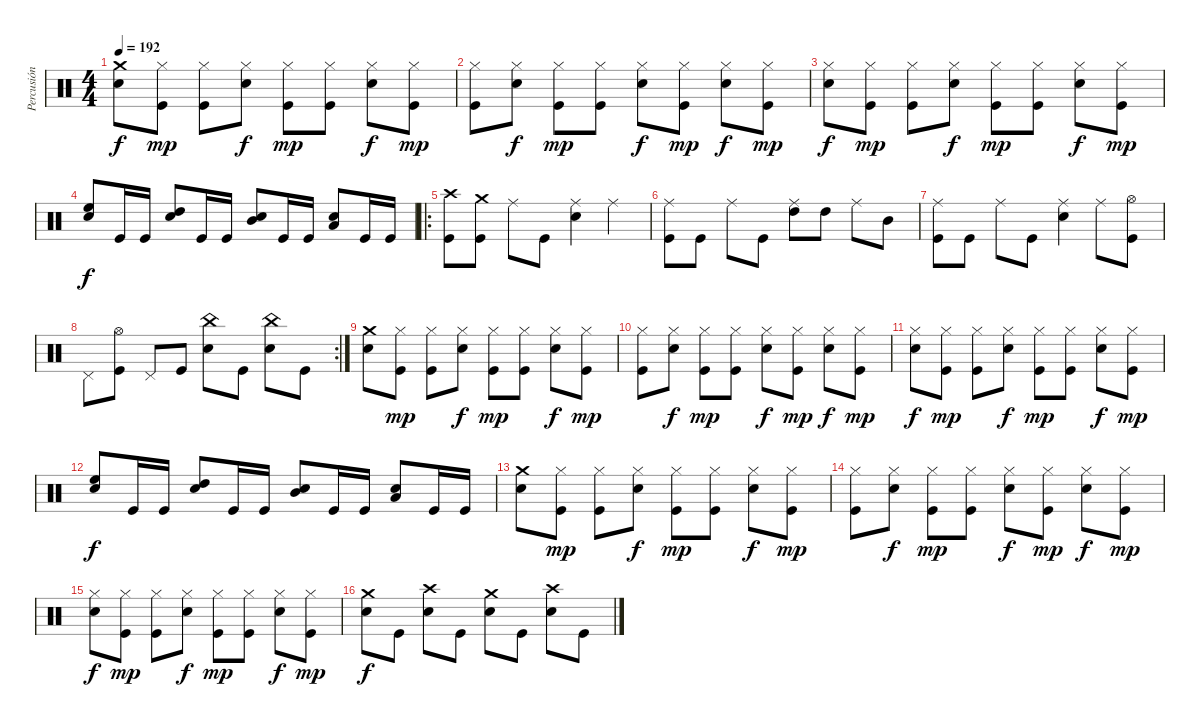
\track ("Percusión" "Percusión") {instrument percussion}
\staff {score}
\articulation defaults
\ts (4 4)
\tempo 192
\clef neutral
\ks c
("Crash medium (hit)" "Electric Snare (hit)").8{dy f} ("Hi-Hat (closed)" "Kick (hit)").8{dy mp} ("Hi-Hat (closed)" "Kick (hit)").8 ("Hi-Hat (closed)" "Electric Snare (hit)").8{dy f} ("Hi-Hat (closed)" "Kick (hit)").8{dy mp} ("Hi-Hat (closed)" "Kick (hit)").8 ("Hi-Hat (closed)" "Electric Snare (hit)").8{dy f} ("Hi-Hat (closed)" "Kick (hit)").8{dy mp} |
("Hi-Hat (closed)" "Kick (hit)").8 ("Hi-Hat (closed)" "Electric Snare (hit)").8{dy f} ("Hi-Hat (closed)" "Kick (hit)").8{dy mp} ("Hi-Hat (closed)" "Kick (hit)").8 ("Hi-Hat (closed)" "Electric Snare (hit)").8{dy f} ("Hi-Hat (closed)" "Kick (hit)").8{dy mp} ("Hi-Hat (closed)" "Electric Snare (hit)").8{dy f} ("Hi-Hat (closed)" "Kick (hit)").8{dy mp} |
("Hi-Hat (closed)" "Electric Snare (hit)").8{dy f} ("Hi-Hat (closed)" "Kick (hit)").8{dy mp} ("Hi-Hat (closed)" "Kick (hit)").8 ("Hi-Hat (closed)" "Electric Snare (hit)").8{dy f} ("Hi-Hat (closed)" "Kick (hit)").8{dy mp} ("Hi-Hat (closed)" "Kick (hit)").8 ("Hi-Hat (closed)" "Electric Snare (hit)").8{dy f} ("Hi-Hat (closed)" "Kick (hit)").8{dy mp} |
("High Floor Tom (hit)" "Electric Snare (hit)").8{dy f} "Kick (hit)".16 "Kick (hit)".16 ("High Tom (hit)" "Electric Snare (hit)").8 "Kick (hit)".16 "Kick (hit)".16 ("Electric Snare (hit)" "Mid Tom (hit)").8 "Kick (hit)".16 "Kick (hit)".16 ("Electric Snare (hit)" "Low Tom (hit)").8 "Kick (hit)".16 "Kick (hit)".16 |
\ro
("Crash high (hit)" "Kick (hit)").8 ("Crash medium (hit)" "Kick (hit)").8 "Ride (middle)".8 "Kick (hit)".8 ("Ride (middle)" "Electric Snare (hit)").4 "Ride (middle)".4 |
("Ride (middle)" "Kick (hit)").8 "Kick (hit)".8 "Ride (middle)".8 "Kick (hit)".8 ("Ride (middle)" "High Tom (hit)").8 "High Tom (hit)".8 "Ride (middle)".8 "Mid Tom (hit)".8 |
("Ride (middle)" "Kick (hit)").8 "Kick (hit)".8 "Ride (middle)".8 "Kick (hit)".8 ("Ride (middle)" "Electric Snare (hit)").4 "Ride (middle)".8 ("Hi-Hat (open)" "Kick (hit)").8 |
\rc 2 "Pedal Hi-Hat (hit)".8
("Hi-Hat (open)" "Kick (hit)").8 "Pedal Hi-Hat (hit)".8 "Kick (hit)".8 ("China (hit)" "Electric Snare (hit)").8 "Kick (hit)".8 ("China (hit)" "Electric Snare (hit)").8 "Kick (hit)".8 |
("Crash medium (hit)" "Electric Snare (hit)").8 ("Hi-Hat (closed)" "Kick (hit)").8{dy mp} ("Hi-Hat (closed)" "Kick (hit)").8 ("Hi-Hat (closed)" "Electric Snare (hit)").8{dy f} ("Hi-Hat (closed)" "Kick (hit)").8{dy mp} ("Hi-Hat (closed)" "Kick (hit)").8 ("Hi-Hat (closed)" "Electric Snare (hit)").8{dy f} ("Hi-Hat (closed)" "Kick (hit)").8{dy mp} |
("Hi-Hat (closed)" "Kick (hit)").8 ("Hi-Hat (closed)" "Electric Snare (hit)").8{dy f} ("Hi-Hat (closed)" "Kick (hit)").8{dy mp} ("Hi-Hat (closed)" "Kick (hit)").8 ("Hi-Hat (closed)" "Electric Snare (hit)").8{dy f} ("Hi-Hat (closed)" "Kick (hit)").8{dy mp} ("Hi-Hat (closed)" "Electric Snare (hit)").8{dy f} ("Hi-Hat (closed)" "Kick (hit)").8{dy mp} |
("Hi-Hat (closed)" "Electric Snare (hit)").8{dy f} ("Hi-Hat (closed)" "Kick (hit)").8{dy mp} ("Hi-Hat (closed)" "Kick (hit)").8 ("Hi-Hat (closed)" "Electric Snare (hit)").8{dy f} ("Hi-Hat (closed)" "Kick (hit)").8{dy mp} ("Hi-Hat (closed)" "Kick (hit)").8 ("Hi-Hat (closed)" "Electric Snare (hit)").8{dy f} ("Hi-Hat (closed)" "Kick (hit)").8{dy mp} |
("High Floor Tom (hit)" "Electric Snare (hit)").8{dy f} "Kick (hit)".16 "Kick (hit)".16 ("High Tom (hit)" "Electric Snare (hit)").8 "Kick (hit)".16 "Kick (hit)".16 ("Electric Snare (hit)" "Mid Tom (hit)").8 "Kick (hit)".16 "Kick (hit)".16 ("Electric Snare (hit)" "Low Tom (hit)").8 "Kick (hit)".16 "Kick (hit)".16 |
("Crash medium (hit)" "Electric Snare (hit)").8 ("Hi-Hat (closed)" "Kick (hit)").8{dy mp} ("Hi-Hat (closed)" "Kick (hit)").8 ("Hi-Hat (closed)" "Electric Snare (hit)").8{dy f} ("Hi-Hat (closed)" "Kick (hit)").8{dy mp} ("Hi-Hat (closed)" "Kick (hit)").8 ("Hi-Hat (closed)" "Electric Snare (hit)").8{dy f} ("Hi-Hat (closed)" "Kick (hit)").8{dy mp} |
("Hi-Hat (closed)" "Kick (hit)").8 ("Hi-Hat (closed)" "Electric Snare (hit)").8{dy f} ("Hi-Hat (closed)" "Kick (hit)").8{dy mp} ("Hi-Hat (closed)" "Kick (hit)").8 ("Hi-Hat (closed)" "Electric Snare (hit)").8{dy f} ("Hi-Hat (closed)" "Kick (hit)").8{dy mp} ("Hi-Hat (closed)" "Electric Snare (hit)").8{dy f} ("Hi-Hat (closed)" "Kick (hit)").8{dy mp} |
("Hi-Hat (closed)" "Electric Snare (hit)").8{dy f} ("Hi-Hat (closed)" "Kick (hit)").8{dy mp} ("Hi-Hat (closed)" "Kick (hit)").8 ("Hi-Hat (closed)" "Electric Snare (hit)").8{dy f} ("Hi-Hat (closed)" "Kick (hit)").8{dy mp} ("Hi-Hat (closed)" "Kick (hit)").8 ("Hi-Hat (closed)" "Electric Snare (hit)").8{dy f} ("Hi-Hat (closed)" "Kick (hit)").8{dy mp} |
("Crash medium (hit)" "Electric Snare (hit)").8{dy f} "Kick (hit)".8 ("Crash high (hit)" "Electric Snare (hit)").8 "Kick (hit)".8 ("Crash medium (hit)" "Electric Snare (hit)").8 "Kick (hit)".8 ("Crash high (hit)" "Electric Snare (hit)").8 "Kick (hit)".8
